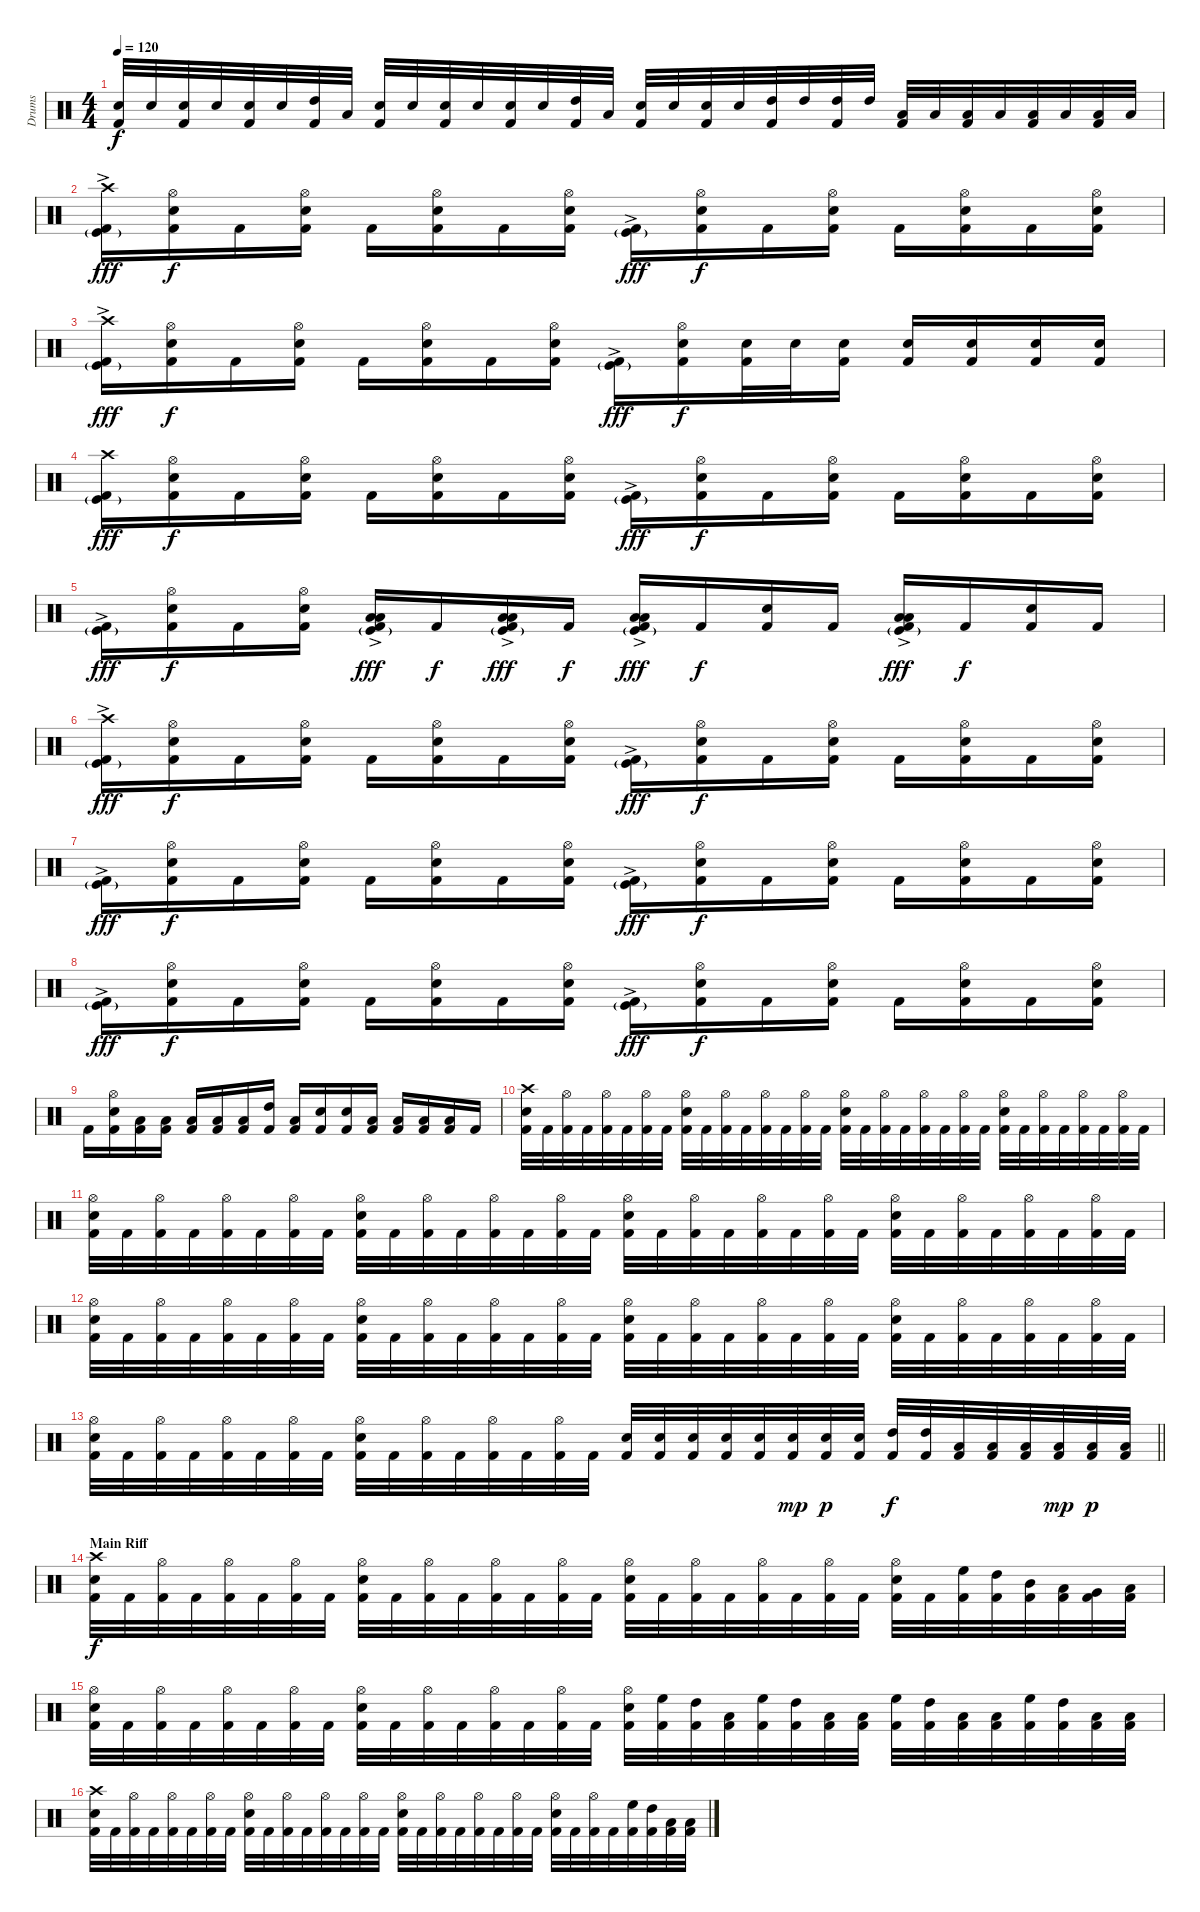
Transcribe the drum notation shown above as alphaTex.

\track ("Drums" "Drums") {instrument percussion}
\staff {score}
\articulation defaults
\ts (4 4)
\tempo 120
\clef neutral
\ks c
("Electric Snare (hit)" "Kick (hit) 2").32{dy f} "Electric Snare (hit)".32 ("Electric Snare (hit)" "Kick (hit) 2").32 "Electric Snare (hit)".32 ("Electric Snare (hit)" "Kick (hit) 2").32 "Electric Snare (hit)".32 ("High Tom (hit)" "Kick (hit) 2").32 "Low Tom (hit)".32 ("Electric Snare (hit)" "Kick (hit) 2").32 "Electric Snare (hit)".32 ("Electric Snare (hit)" "Kick (hit) 2").32 "Electric Snare (hit)".32 ("Electric Snare (hit)" "Kick (hit) 2").32 "Electric Snare (hit)".32 ("High Tom (hit)" "Kick (hit) 2").32 "Low Tom (hit)".32 ("Electric Snare (hit)" "Kick (hit) 2").32 "Electric Snare (hit)".32 ("Electric Snare (hit)" "Kick (hit) 2").32 "Electric Snare (hit)".32 ("High Tom (hit)" "Kick (hit) 2").32 "High Tom (hit)".32 ("High Tom (hit)" "Kick (hit) 2").32 "High Tom (hit)".32 ("Low Tom (hit)" "Kick (hit) 2").32 "Low Tom (hit)".32 ("Low Tom (hit)" "Kick (hit) 2").32 "Low Tom (hit)".32 ("Low Floor Tom (hit)" "Kick (hit) 2").32 "Low Floor Tom (hit)".32 ("Low Floor Tom (hit)" "Kick (hit) 2").32 "Low Floor Tom (hit)".32 |
("Crash high (hit)" "Kick (hit)"{g} "Kick (hit) 2"{ac}).16{dy fff} ("Hi-Hat (open)" "Electric Snare (hit)" "Kick (hit) 2").16{dy f} "Kick (hit) 2".16 ("Hi-Hat (open)" "Electric Snare (hit)" "Kick (hit) 2").16 "Kick (hit) 2".16 ("Hi-Hat (open)" "Electric Snare (hit)" "Kick (hit) 2").16 "Kick (hit) 2".16 ("Hi-Hat (open)" "Electric Snare (hit)" "Kick (hit) 2").16 ("Kick (hit)"{g} "Kick (hit) 2"{ac}).16{dy fff} ("Hi-Hat (open)" "Electric Snare (hit)" "Kick (hit) 2").16{dy f} "Kick (hit) 2".16 ("Hi-Hat (open)" "Electric Snare (hit)" "Kick (hit) 2").16 "Kick (hit) 2".16 ("Hi-Hat (open)" "Electric Snare (hit)" "Kick (hit) 2").16 "Kick (hit) 2".16 ("Hi-Hat (open)" "Electric Snare (hit)" "Kick (hit) 2").16 |
("Crash high (hit)" "Kick (hit)"{g} "Kick (hit) 2"{ac}).16{dy fff} ("Hi-Hat (open)" "Electric Snare (hit)" "Kick (hit) 2").16{dy f} "Kick (hit) 2".16 ("Hi-Hat (open)" "Electric Snare (hit)" "Kick (hit) 2").16 "Kick (hit) 2".16 ("Hi-Hat (open)" "Electric Snare (hit)" "Kick (hit) 2").16 "Kick (hit) 2".16 ("Hi-Hat (open)" "Electric Snare (hit)" "Kick (hit) 2").16 ("Kick (hit)"{g} "Kick (hit) 2"{ac}).16{dy fff} ("Hi-Hat (open)" "Electric Snare (hit)" "Kick (hit) 2").16{dy f} ("Electric Snare (hit)" "Kick (hit) 2").32 "Electric Snare (hit)".32 ("Electric Snare (hit)" "Kick (hit) 2").16 ("Electric Snare (hit)" "Kick (hit) 2").16 ("Electric Snare (hit)" "Kick (hit) 2").16 ("Electric Snare (hit)" "Kick (hit) 2").16 ("Electric Snare (hit)" "Kick (hit) 2").16 |
("Crash high (hit)" "Kick (hit)"{g} "Kick (hit) 2").16{dy fff} ("Hi-Hat (open)" "Electric Snare (hit)" "Kick (hit) 2").16{dy f} "Kick (hit) 2".16 ("Hi-Hat (open)" "Electric Snare (hit)" "Kick (hit) 2").16 "Kick (hit) 2".16 ("Hi-Hat (open)" "Electric Snare (hit)" "Kick (hit) 2").16 "Kick (hit) 2".16 ("Hi-Hat (open)" "Electric Snare (hit)" "Kick (hit) 2").16 ("Kick (hit)"{g} "Kick (hit) 2"{ac}).16{dy fff} ("Hi-Hat (open)" "Electric Snare (hit)" "Kick (hit) 2").16{dy f} "Kick (hit) 2".16 ("Hi-Hat (open)" "Electric Snare (hit)" "Kick (hit) 2").16 "Kick (hit) 2".16 ("Hi-Hat (open)" "Electric Snare (hit)" "Kick (hit) 2").16 "Kick (hit) 2".16 ("Hi-Hat (open)" "Electric Snare (hit)" "Kick (hit) 2").16 |
("Kick (hit)"{g} "Kick (hit) 2"{ac}).16{dy fff} ("Hi-Hat (open)" "Electric Snare (hit)" "Kick (hit) 2").16{dy f} "Kick (hit) 2".16 ("Hi-Hat (open)" "Electric Snare (hit)" "Kick (hit) 2").16 ("Low Tom (hit)" "Kick (hit)"{g} "Low Floor Tom (hit)" "Kick (hit) 2"{ac}).16{dy fff} "Kick (hit) 2".16{dy f} ("Low Tom (hit)" "Kick (hit)"{g} "Low Floor Tom (hit)" "Kick (hit) 2"{ac}).16{dy fff} "Kick (hit) 2".16{dy f} ("Low Tom (hit)" "Kick (hit)"{g} "Low Floor Tom (hit)" "Kick (hit) 2"{ac}).16{dy fff} "Kick (hit) 2".16{dy f} ("Electric Snare (hit)" "Kick (hit) 2").16 "Kick (hit) 2".16 ("Low Tom (hit)" "Kick (hit)"{g} "Low Floor Tom (hit)" "Kick (hit) 2"{ac}).16{dy fff} "Kick (hit) 2".16{dy f} ("Electric Snare (hit)" "Kick (hit) 2").16 "Kick (hit) 2".16 |
("Crash high (hit)" "Kick (hit)"{g} "Kick (hit) 2"{ac}).16{dy fff} ("Hi-Hat (open)" "Electric Snare (hit)" "Kick (hit) 2").16{dy f} "Kick (hit) 2".16 ("Hi-Hat (open)" "Electric Snare (hit)" "Kick (hit) 2").16 "Kick (hit) 2".16 ("Hi-Hat (open)" "Electric Snare (hit)" "Kick (hit) 2").16 "Kick (hit) 2".16 ("Hi-Hat (open)" "Electric Snare (hit)" "Kick (hit) 2").16 ("Kick (hit)"{g} "Kick (hit) 2"{ac}).16{dy fff} ("Hi-Hat (open)" "Electric Snare (hit)" "Kick (hit) 2").16{dy f} "Kick (hit) 2".16 ("Hi-Hat (open)" "Electric Snare (hit)" "Kick (hit) 2").16 "Kick (hit) 2".16 ("Hi-Hat (open)" "Electric Snare (hit)" "Kick (hit) 2").16 "Kick (hit) 2".16 ("Hi-Hat (open)" "Electric Snare (hit)" "Kick (hit) 2").16 |
("Kick (hit)"{g} "Kick (hit) 2"{ac}).16{dy fff} ("Hi-Hat (open)" "Electric Snare (hit)" "Kick (hit) 2").16{dy f} "Kick (hit) 2".16 ("Hi-Hat (open)" "Electric Snare (hit)" "Kick (hit) 2").16 "Kick (hit) 2".16 ("Hi-Hat (open)" "Electric Snare (hit)" "Kick (hit) 2").16 "Kick (hit) 2".16 ("Hi-Hat (open)" "Electric Snare (hit)" "Kick (hit) 2").16 ("Kick (hit)"{g} "Kick (hit) 2"{ac}).16{dy fff} ("Hi-Hat (open)" "Electric Snare (hit)" "Kick (hit) 2").16{dy f} "Kick (hit) 2".16 ("Hi-Hat (open)" "Electric Snare (hit)" "Kick (hit) 2").16 "Kick (hit) 2".16 ("Hi-Hat (open)" "Electric Snare (hit)" "Kick (hit) 2").16 "Kick (hit) 2".16 ("Hi-Hat (open)" "Electric Snare (hit)" "Kick (hit) 2").16 |
("Kick (hit)"{g} "Kick (hit) 2"{ac}).16{dy fff} ("Hi-Hat (open)" "Electric Snare (hit)" "Kick (hit) 2").16{dy f} "Kick (hit) 2".16 ("Hi-Hat (open)" "Electric Snare (hit)" "Kick (hit) 2").16 "Kick (hit) 2".16 ("Hi-Hat (open)" "Electric Snare (hit)" "Kick (hit) 2").16 "Kick (hit) 2".16 ("Hi-Hat (open)" "Electric Snare (hit)" "Kick (hit) 2").16 ("Kick (hit)"{g} "Kick (hit) 2"{ac}).16{dy fff} ("Hi-Hat (open)" "Electric Snare (hit)" "Kick (hit) 2").16{dy f} "Kick (hit) 2".16 ("Hi-Hat (open)" "Electric Snare (hit)" "Kick (hit) 2").16 "Kick (hit) 2".16 ("Hi-Hat (open)" "Electric Snare (hit)" "Kick (hit) 2").16 "Kick (hit) 2".16 ("Hi-Hat (open)" "Electric Snare (hit)" "Kick (hit) 2").16 |
"Kick (hit) 2".16 ("Hi-Hat (open)" "Electric Snare (hit)" "Kick (hit) 2").16 ("Low Floor Tom (hit)" "Kick (hit) 2").16 ("Low Floor Tom (hit)" "Kick (hit) 2").16 ("Low Tom (hit)" "Kick (hit) 2").16 ("Low Floor Tom (hit)" "Kick (hit) 2").16 ("Low Tom (hit)" "Kick (hit) 2").16 ("High Tom (hit)" "Kick (hit) 2").16 ("Low Tom (hit)" "Kick (hit) 2").16 ("Electric Snare (hit)" "Kick (hit) 2").16 ("Electric Snare (hit)" "Kick (hit) 2").16 ("Low Floor Tom (hit)" "Kick (hit) 2").16 ("Low Tom (hit)" "Kick (hit) 2").16 ("Low Floor Tom (hit)" "Kick (hit) 2").16 ("Low Tom (hit)" "Kick (hit) 2").16 "Kick (hit) 2".16 |
("Crash high (hit)" "Electric Snare (hit)" "Kick (hit) 2").32 "Kick (hit) 2".32 ("Hi-Hat (open)" "Kick (hit) 2").32 "Kick (hit) 2".32 ("Hi-Hat (open)" "Kick (hit) 2").32 "Kick (hit) 2".32 ("Hi-Hat (open)" "Kick (hit) 2").32 "Kick (hit) 2".32 ("Hi-Hat (open)" "Electric Snare (hit)" "Kick (hit) 2").32 "Kick (hit) 2".32 ("Hi-Hat (open)" "Kick (hit) 2").32 "Kick (hit) 2".32 ("Hi-Hat (open)" "Kick (hit) 2").32 "Kick (hit) 2".32 ("Hi-Hat (open)" "Kick (hit) 2").32 "Kick (hit) 2".32 ("Hi-Hat (open)" "Electric Snare (hit)" "Kick (hit) 2").32 "Kick (hit) 2".32 ("Hi-Hat (open)" "Kick (hit) 2").32 "Kick (hit) 2".32 ("Hi-Hat (open)" "Kick (hit) 2").32 "Kick (hit) 2".32 ("Hi-Hat (open)" "Kick (hit) 2").32 "Kick (hit) 2".32 ("Hi-Hat (open)" "Electric Snare (hit)" "Kick (hit) 2").32 "Kick (hit) 2".32 ("Hi-Hat (open)" "Kick (hit) 2").32 "Kick (hit) 2".32 ("Hi-Hat (open)" "Kick (hit) 2").32 "Kick (hit) 2".32 ("Hi-Hat (open)" "Kick (hit) 2").32 "Kick (hit) 2".32 |
("Hi-Hat (open)" "Electric Snare (hit)" "Kick (hit) 2").32 "Kick (hit) 2".32 ("Hi-Hat (open)" "Kick (hit) 2").32 "Kick (hit) 2".32 ("Hi-Hat (open)" "Kick (hit) 2").32 "Kick (hit) 2".32 ("Hi-Hat (open)" "Kick (hit) 2").32 "Kick (hit) 2".32 ("Hi-Hat (open)" "Electric Snare (hit)" "Kick (hit) 2").32 "Kick (hit) 2".32 ("Hi-Hat (open)" "Kick (hit) 2").32 "Kick (hit) 2".32 ("Hi-Hat (open)" "Kick (hit) 2").32 "Kick (hit) 2".32 ("Hi-Hat (open)" "Kick (hit) 2").32 "Kick (hit) 2".32 ("Hi-Hat (open)" "Electric Snare (hit)" "Kick (hit) 2").32 "Kick (hit) 2".32 ("Hi-Hat (open)" "Kick (hit) 2").32 "Kick (hit) 2".32 ("Hi-Hat (open)" "Kick (hit) 2").32 "Kick (hit) 2".32 ("Hi-Hat (open)" "Kick (hit) 2").32 "Kick (hit) 2".32 ("Hi-Hat (open)" "Electric Snare (hit)" "Kick (hit) 2").32 "Kick (hit) 2".32 ("Hi-Hat (open)" "Kick (hit) 2").32 "Kick (hit) 2".32 ("Hi-Hat (open)" "Kick (hit) 2").32 "Kick (hit) 2".32 ("Hi-Hat (open)" "Kick (hit) 2").32 "Kick (hit) 2".32 |
("Hi-Hat (open)" "Electric Snare (hit)" "Kick (hit) 2").32 "Kick (hit) 2".32 ("Hi-Hat (open)" "Kick (hit) 2").32 "Kick (hit) 2".32 ("Hi-Hat (open)" "Kick (hit) 2").32 "Kick (hit) 2".32 ("Hi-Hat (open)" "Kick (hit) 2").32 "Kick (hit) 2".32 ("Hi-Hat (open)" "Electric Snare (hit)" "Kick (hit) 2").32 "Kick (hit) 2".32 ("Hi-Hat (open)" "Kick (hit) 2").32 "Kick (hit) 2".32 ("Hi-Hat (open)" "Kick (hit) 2").32 "Kick (hit) 2".32 ("Hi-Hat (open)" "Kick (hit) 2").32 "Kick (hit) 2".32 ("Hi-Hat (open)" "Electric Snare (hit)" "Kick (hit) 2").32 "Kick (hit) 2".32 ("Hi-Hat (open)" "Kick (hit) 2").32 "Kick (hit) 2".32 ("Hi-Hat (open)" "Kick (hit) 2").32 "Kick (hit) 2".32 ("Hi-Hat (open)" "Kick (hit) 2").32 "Kick (hit) 2".32 ("Hi-Hat (open)" "Electric Snare (hit)" "Kick (hit) 2").32 "Kick (hit) 2".32 ("Hi-Hat (open)" "Kick (hit) 2").32 "Kick (hit) 2".32 ("Hi-Hat (open)" "Kick (hit) 2").32 "Kick (hit) 2".32 ("Hi-Hat (open)" "Kick (hit) 2").32 "Kick (hit) 2".32 |
\barLineRight lightlight
("Hi-Hat (open)" "Electric Snare (hit)" "Kick (hit) 2").32 "Kick (hit) 2".32 ("Hi-Hat (open)" "Kick (hit) 2").32 "Kick (hit) 2".32 ("Hi-Hat (open)" "Kick (hit) 2").32 "Kick (hit) 2".32 ("Hi-Hat (open)" "Kick (hit) 2").32 "Kick (hit) 2".32 ("Hi-Hat (open)" "Electric Snare (hit)" "Kick (hit) 2").32 "Kick (hit) 2".32 ("Hi-Hat (open)" "Kick (hit) 2").32 "Kick (hit) 2".32 ("Hi-Hat (open)" "Kick (hit) 2").32 "Kick (hit) 2".32 ("Hi-Hat (open)" "Kick (hit) 2").32 "Kick (hit) 2".32 ("Electric Snare (hit)" "Kick (hit) 2").32 ("Electric Snare (hit)" "Kick (hit) 2").32 ("Electric Snare (hit)" "Kick (hit) 2").32 ("Electric Snare (hit)" "Kick (hit) 2").32 ("Electric Snare (hit)" "Kick (hit) 2").32 ("Electric Snare (hit)" "Kick (hit) 2").32{dy mp} ("Electric Snare (hit)" "Kick (hit) 2").32{dy p} ("Electric Snare (hit)" "Kick (hit) 2").32 ("High Tom (hit)" "Kick (hit) 2").32{dy f} ("High Tom (hit)" "Kick (hit) 2").32 ("Low Tom (hit)" "Kick (hit) 2").32 ("Low Tom (hit)" "Kick (hit) 2").32 ("Low Tom (hit)" "Kick (hit) 2").32 ("Low Tom (hit)" "Kick (hit) 2").32{dy mp} ("Low Floor Tom (hit)" "Kick (hit) 2").32{dy p} ("Low Floor Tom (hit)" "Kick (hit) 2").32 |
\section ("" "Main Riff")
("Crash high (hit)" "Electric Snare (hit)" "Kick (hit) 2").32{dy f} "Kick (hit) 2".32 ("Hi-Hat (open)" "Kick (hit) 2").32 "Kick (hit) 2".32 ("Hi-Hat (open)" "Kick (hit) 2").32 "Kick (hit) 2".32 ("Hi-Hat (open)" "Kick (hit) 2").32 "Kick (hit) 2".32 ("Hi-Hat (open)" "Electric Snare (hit)" "Kick (hit) 2").32 "Kick (hit) 2".32 ("Hi-Hat (open)" "Kick (hit) 2").32 "Kick (hit) 2".32 ("Hi-Hat (open)" "Kick (hit) 2").32 "Kick (hit) 2".32 ("Hi-Hat (open)" "Kick (hit) 2").32 "Kick (hit) 2".32 ("Hi-Hat (open)" "Electric Snare (hit)" "Kick (hit) 2").32 "Kick (hit) 2".32 ("Hi-Hat (open)" "Kick (hit) 2").32 "Kick (hit) 2".32 ("Hi-Hat (open)" "Kick (hit) 2").32 "Kick (hit) 2".32 ("Hi-Hat (open)" "Kick (hit) 2").32 "Kick (hit) 2".32 ("Hi-Hat (open)" "Electric Snare (hit)" "Kick (hit) 2").32 "Kick (hit) 2".32 ("High Floor Tom (hit)" "Kick (hit) 2").32 ("High Tom (hit)" "Kick (hit) 2").32 ("Mid Tom (hit)" "Kick (hit) 2").32 ("Low Tom (hit)" "Kick (hit) 2").32 ("Very Low Tom (hit)" "Kick (hit) 2").32 ("Low Floor Tom (hit)" "Kick (hit) 2").32 |
("Hi-Hat (open)" "Electric Snare (hit)" "Kick (hit) 2").32 "Kick (hit) 2".32 ("Hi-Hat (open)" "Kick (hit) 2").32 "Kick (hit) 2".32 ("Hi-Hat (open)" "Kick (hit) 2").32 "Kick (hit) 2".32 ("Hi-Hat (open)" "Kick (hit) 2").32 "Kick (hit) 2".32 ("Hi-Hat (open)" "Electric Snare (hit)" "Kick (hit) 2").32 "Kick (hit) 2".32 ("Hi-Hat (open)" "Kick (hit) 2").32 "Kick (hit) 2".32 ("Hi-Hat (open)" "Kick (hit) 2").32 "Kick (hit) 2".32 ("Hi-Hat (open)" "Kick (hit) 2").32 "Kick (hit) 2".32 ("Hi-Hat (open)" "Electric Snare (hit)" "Kick (hit) 2").32 ("High Floor Tom (hit)" "Kick (hit) 2").32 ("High Tom (hit)" "Kick (hit) 2").32 ("Low Tom (hit)" "Kick (hit) 2").32 ("High Floor Tom (hit)" "Kick (hit) 2").32 ("High Tom (hit)" "Kick (hit) 2").32 ("Low Tom (hit)" "Kick (hit) 2").32 ("Low Floor Tom (hit)" "Kick (hit) 2").32 ("High Floor Tom (hit)" "Kick (hit) 2").32 ("High Tom (hit)" "Kick (hit) 2").32 ("Low Tom (hit)" "Kick (hit) 2").32 ("Low Floor Tom (hit)" "Kick (hit) 2").32 ("High Floor Tom (hit)" "Kick (hit) 2").32 ("High Tom (hit)" "Kick (hit) 2").32 ("Low Tom (hit)" "Kick (hit) 2").32 ("Low Floor Tom (hit)" "Kick (hit) 2").32 |
("Crash high (hit)" "Electric Snare (hit)" "Kick (hit) 2").32 "Kick (hit) 2".32 ("Hi-Hat (open)" "Kick (hit) 2").32 "Kick (hit) 2".32 ("Hi-Hat (open)" "Kick (hit) 2").32 "Kick (hit) 2".32 ("Hi-Hat (open)" "Kick (hit) 2").32 "Kick (hit) 2".32 ("Hi-Hat (open)" "Electric Snare (hit)" "Kick (hit) 2").32 "Kick (hit) 2".32 ("Hi-Hat (open)" "Kick (hit) 2").32 "Kick (hit) 2".32 ("Hi-Hat (open)" "Kick (hit) 2").32 "Kick (hit) 2".32 ("Hi-Hat (open)" "Kick (hit) 2").32 "Kick (hit) 2".32 ("Hi-Hat (open)" "Electric Snare (hit)" "Kick (hit) 2").32 "Kick (hit) 2".32 ("Hi-Hat (open)" "Kick (hit) 2").32 "Kick (hit) 2".32 ("Hi-Hat (open)" "Kick (hit) 2").32 "Kick (hit) 2".32 ("Hi-Hat (open)" "Kick (hit) 2").32 "Kick (hit) 2".32 ("Hi-Hat (open)" "Electric Snare (hit)" "Kick (hit) 2").32 "Kick (hit) 2".32 ("Hi-Hat (open)" "Kick (hit) 2").32 "Kick (hit) 2".32 ("High Floor Tom (hit)" "Kick (hit) 2").32 ("High Tom (hit)" "Kick (hit) 2").32 ("Low Tom (hit)" "Kick (hit) 2").32 ("Low Floor Tom (hit)" "Kick (hit) 2").32
